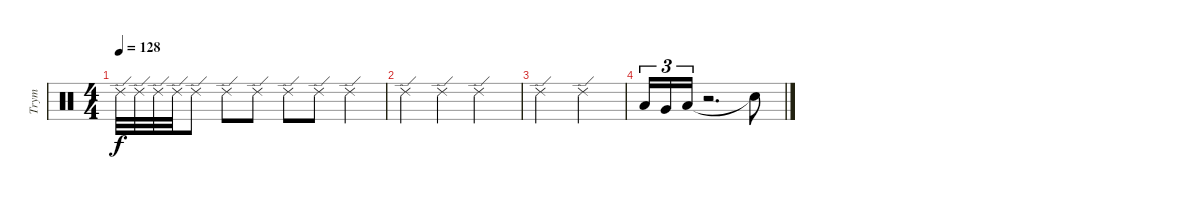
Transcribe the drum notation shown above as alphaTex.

\track ("Trym" "Trym") {instrument percussion}
\staff {score}
\articulation defaults
\ts (4 4)
\tempo 128
\clef neutral
\ks c "Ride (edge) 2".32{dy f} "Ride (edge) 2".32 "Ride (edge) 2".32 "Ride (edge) 2".32 "Ride (edge) 2".8 "Ride (edge) 2".8 "Ride (edge) 2".8 "Ride (edge) 2".8 "Ride (edge) 2".8 "Ride (edge) 2".4
|
"Ride (edge) 2".4 "Ride (edge) 2".4 "Ride (edge) 2".2 |
"Ride (edge) 2".2 "Ride (edge) 2".2 |
"Low Floor Tom (hit)".16{tu (3 2)} "Very Low Tom (hit)".16{tu (3 2)} "Low Floor Tom (hit)".16{tu (3 2)} r.2{d} "Snare (hit)"{t}.8
